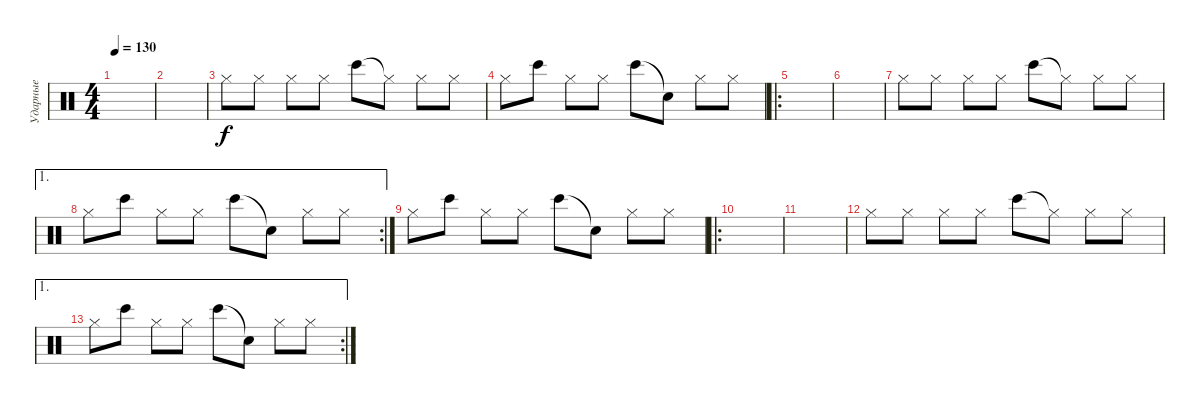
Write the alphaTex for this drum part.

\track ("Ударные" "Ударные") {instrument percussion}
\staff {score}
\articulation defaults
\ts (4 4)
\tempo 130
\clef neutral
\ks c
|
|
"Hi-Hat (closed)".8 "Hi-Hat (closed)".8 "Hi-Hat (closed)".8 "Hi-Hat (closed)".8 "Bongo High (hit)".8 "Hi-Hat (closed)"{t}.8 "Hi-Hat (closed)".8 "Hi-Hat (closed)".8 |
"Hi-Hat (closed)".8 "Bongo High (hit)".8 "Hi-Hat (closed)".8 "Hi-Hat (closed)".8 "Bongo High (hit)".8 "Snare (hit)"{t}.8 "Hi-Hat (closed)".8 "Hi-Hat (closed)".8 |
\ro
|
|
"Hi-Hat (closed)".8 "Hi-Hat (closed)".8 "Hi-Hat (closed)".8 "Hi-Hat (closed)".8 "Bongo High (hit)".8 "Hi-Hat (closed)"{t}.8 "Hi-Hat (closed)".8 "Hi-Hat (closed)".8 |
\ae 1
\rc 2 "Hi-Hat (closed)".8 "Bongo High (hit)".8 "Hi-Hat (closed)".8 "Hi-Hat (closed)".8 "Bongo High (hit)".8 "Snare (hit)"{t}.8 "Hi-Hat (closed)".8 "Hi-Hat (closed)".8
|
"Hi-Hat (closed)".8 "Bongo High (hit)".8 "Hi-Hat (closed)".8 "Hi-Hat (closed)".8 "Bongo High (hit)".8 "Snare (hit)"{t}.8 "Hi-Hat (closed)".8 "Hi-Hat (closed)".8 |
\ro
|
|
"Hi-Hat (closed)".8 "Hi-Hat (closed)".8 "Hi-Hat (closed)".8 "Hi-Hat (closed)".8 "Bongo High (hit)".8 "Hi-Hat (closed)"{t}.8 "Hi-Hat (closed)".8 "Hi-Hat (closed)".8 |
\ae 1
\rc 2 "Hi-Hat (closed)".8 "Bongo High (hit)".8 "Hi-Hat (closed)".8 "Hi-Hat (closed)".8 "Bongo High (hit)".8 "Snare (hit)"{t}.8 "Hi-Hat (closed)".8 "Hi-Hat (closed)".8
